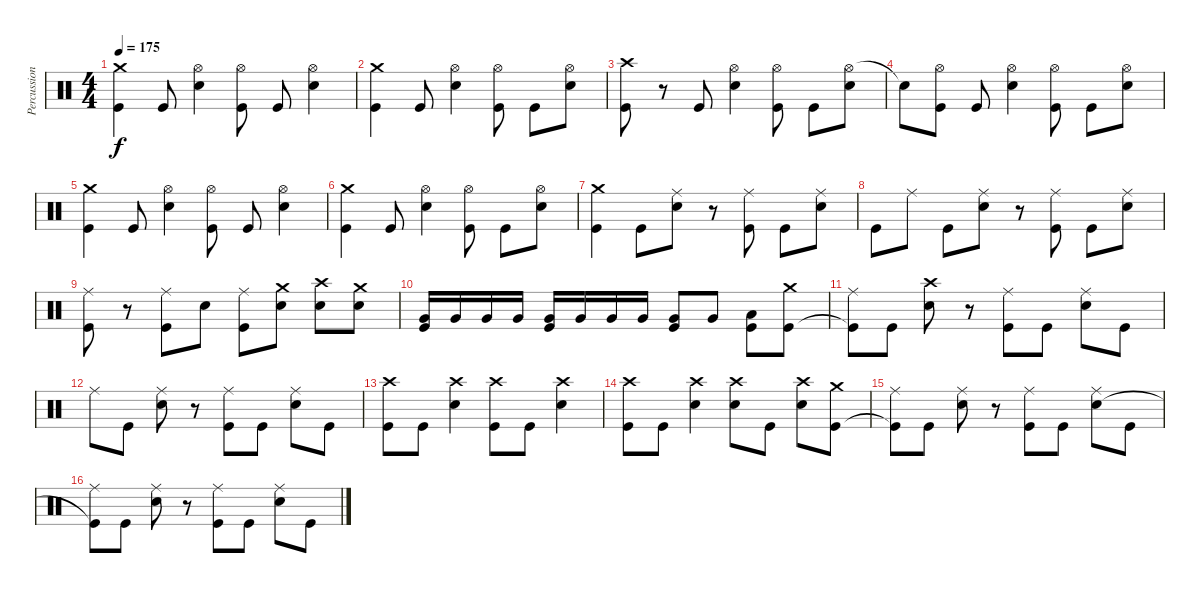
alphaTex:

\track ("Percussion" "Percussion") {instrument percussion}
\staff {score}
\articulation defaults
\ts (4 4)
\tempo 175
\clef neutral
\ks c
("Crash medium (hit)" "Kick (hit)").4{dy f} "Kick (hit)".8 ("Hi-Hat (open)" "Snare (hit) 2").4 ("Hi-Hat (open)" "Kick (hit)").8 "Kick (hit)".8 ("Hi-Hat (open)" "Snare (hit) 2").4 |
("Crash medium (hit)" "Kick (hit)").4 "Kick (hit)".8 ("Hi-Hat (open)" "Snare (hit) 2").4 ("Hi-Hat (open)" "Kick (hit)").8 "Kick (hit)".8 ("Hi-Hat (open)" "Snare (hit) 2").8 |
("Crash high (hit)" "Kick (hit)").8 r.8 "Kick (hit)".8 ("Hi-Hat (open)" "Snare (hit) 2").4 ("Hi-Hat (open)" "Kick (hit)").8 "Kick (hit)".8 ("Hi-Hat (open)" "Snare (hit) 2").8 |
"Snare (hit)"{t}.8 ("Hi-Hat (open)" "Kick (hit)").8 "Kick (hit)".8 ("Hi-Hat (open)" "Snare (hit) 2").4 ("Hi-Hat (open)" "Kick (hit)").8 "Kick (hit)".8 ("Hi-Hat (open)" "Snare (hit) 2").8 |
("Crash medium (hit)" "Kick (hit)").4 "Kick (hit)".8 ("Hi-Hat (open)" "Snare (hit) 2").4 ("Hi-Hat (open)" "Kick (hit)").8 "Kick (hit)".8 ("Hi-Hat (open)" "Snare (hit) 2").4 |
("Crash medium (hit)" "Kick (hit)").4 "Kick (hit)".8 ("Hi-Hat (open)" "Snare (hit) 2").4 ("Hi-Hat (open)" "Kick (hit)").8 "Kick (hit)".8 ("Hi-Hat (open)" "Snare (hit) 2").8 |
("Crash medium (hit)" "Kick (hit)").4 "Kick (hit)".8 ("Ride (middle)" "Snare (hit) 2").8 r.8 ("Ride (middle)" "Kick (hit)").8 "Kick (hit)".8 ("Ride (middle)" "Snare (hit) 2").8 |
"Kick (hit)".8 "Ride (middle)".8 "Kick (hit)".8 ("Ride (middle)" "Snare (hit) 2").8 r.8 ("Ride (middle)" "Kick (hit)").8 "Kick (hit)".8 ("Ride (middle)" "Snare (hit) 2").8 |
("Ride (middle)" "Kick (hit)").8 r.8 ("Ride (middle)" "Kick (hit)").8 "Snare (hit) 2".8 ("Ride (middle)" "Kick (hit)").8 ("Crash medium (hit)" "Snare (hit) 2").8 ("Crash high (hit)" "Snare (hit) 2").8 ("Crash medium (hit)" "Snare (hit) 2").8 |
("Very Low Tom (hit)" "Kick (hit)").16 "Very Low Tom (hit)".16 "Very Low Tom (hit)".16 "Very Low Tom (hit)".16 ("Very Low Tom (hit)" "Kick (hit)").16 "Very Low Tom (hit)".16 "Very Low Tom (hit)".16 "Very Low Tom (hit)".16 ("Very Low Tom (hit)" "Kick (hit)").8 "Very Low Tom (hit)".8 ("Low Floor Tom (hit)" "Kick (hit)").8 ("Crash medium (hit)" "Kick (hit)").8 |
("Ride (middle)" "Kick (hit)"{t}).8 "Kick (hit)".8 ("Crash high (hit)" "Snare (hit) 2").8 r.8 ("Ride (middle)" "Kick (hit)").8 "Kick (hit)".8 ("Ride (middle)" "Snare (hit) 2").8 "Kick (hit)".8 |
"Ride (middle)".8 "Kick (hit)".8 ("Ride (middle)" "Snare (hit) 2").8 r.8 ("Ride (middle)" "Kick (hit)").8 "Kick (hit)".8 ("Ride (middle)" "Snare (hit) 2").8 "Kick (hit)".8 |
("Crash high (hit)" "Kick (hit)").8 "Kick (hit)".8 ("Crash high (hit)" "Snare (hit) 2").4 ("Crash high (hit)" "Kick (hit)").8 "Kick (hit)".8 ("Crash high (hit)" "Snare (hit) 2").4 |
("Crash high (hit)" "Kick (hit)").8 "Kick (hit)".8 ("Crash high (hit)" "Snare (hit) 2").4 ("Crash high (hit)" "Snare (hit) 2").8 "Kick (hit)".8 ("Crash high (hit)" "Snare (hit) 2").8 ("Crash medium (hit)" "Kick (hit)").8 |
("Ride (middle)" "Kick (hit)"{t}).8 "Kick (hit)".8 ("Ride (middle)" "Snare (hit) 2").8 r.8 ("Ride (middle)" "Kick (hit)").8 "Kick (hit)".8 ("Ride (middle)" "Snare (hit) 2").8 "Kick (hit)".8 |
("Ride (middle)" "Kick (hit)"{t}).8 "Kick (hit)".8 ("Ride (middle)" "Snare (hit) 2").8 r.8 ("Ride (middle)" "Kick (hit)").8 "Kick (hit)".8 ("Ride (middle)" "Snare (hit) 2").8 "Kick (hit)".8
